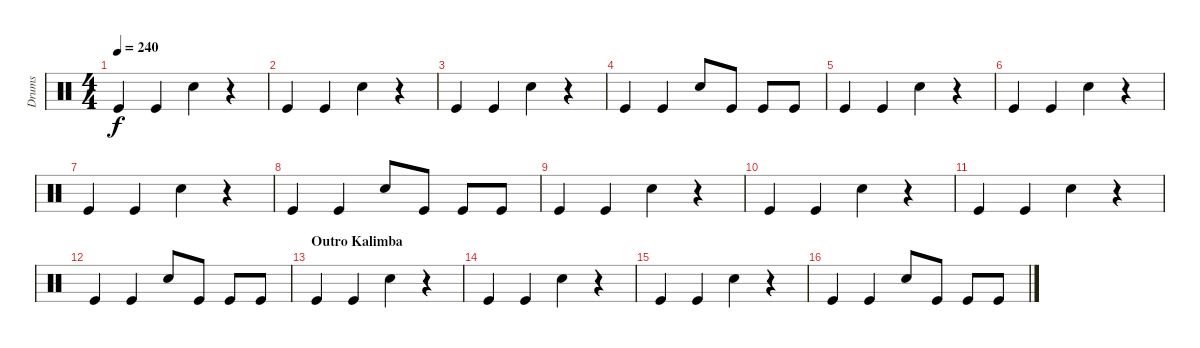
\track ("Drums" "Drums") {instrument percussion}
\staff {score}
\articulation defaults
\ts (4 4)
\tempo 240
\clef neutral
\ks c "Kick (hit)".4{dy f} "Kick (hit)".4 "Snare (hit) 2".4
r.4 |
"Kick (hit)".4 "Kick (hit)".4 "Snare (hit) 2".4 r.4 |
"Kick (hit)".4 "Kick (hit)".4 "Snare (hit) 2".4 r.4 |
"Kick (hit)".4 "Kick (hit)".4 "Snare (hit) 2".8 "Kick (hit)".8 "Kick (hit)".8 "Kick (hit)".8 |
"Kick (hit)".4 "Kick (hit)".4 "Snare (hit) 2".4 r.4 |
"Kick (hit)".4 "Kick (hit)".4 "Snare (hit) 2".4 r.4 |
"Kick (hit)".4 "Kick (hit)".4 "Snare (hit) 2".4 r.4 |
"Kick (hit)".4 "Kick (hit)".4 "Snare (hit) 2".8 "Kick (hit)".8 "Kick (hit)".8 "Kick (hit)".8 |
"Kick (hit)".4 "Kick (hit)".4 "Snare (hit) 2".4 r.4 |
"Kick (hit)".4 "Kick (hit)".4 "Snare (hit) 2".4 r.4 |
"Kick (hit)".4 "Kick (hit)".4 "Snare (hit) 2".4 r.4 |
"Kick (hit)".4 "Kick (hit)".4 "Snare (hit) 2".8 "Kick (hit)".8 "Kick (hit)".8 "Kick (hit)".8 |
\section ("" "Outro Kalimba")
"Kick (hit)".4 "Kick (hit)".4 "Snare (hit) 2".4 r.4 |
"Kick (hit)".4 "Kick (hit)".4 "Snare (hit) 2".4 r.4 |
"Kick (hit)".4 "Kick (hit)".4 "Snare (hit) 2".4 r.4 |
"Kick (hit)".4 "Kick (hit)".4 "Snare (hit) 2".8 "Kick (hit)".8 "Kick (hit)".8 "Kick (hit)".8
